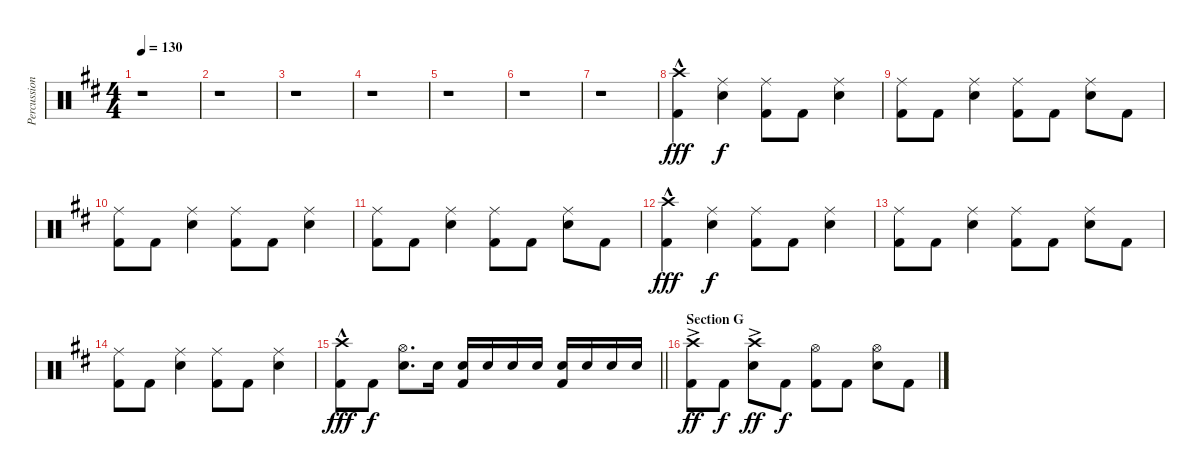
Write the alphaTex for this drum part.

\track ("Percussion" "Percussion") {instrument percussion}
\staff {score}
\articulation defaults
\ts (4 4)
\tempo 130
\clef neutral
\ks d
r.1{dy f} |
r.1 |
r.1 |
r.1 |
r.1 |
r.1 |
r.1 |
("Crash high (hit)" "Kick (hit) 2"{hac}).4{dy fff} ("Ride (middle)" "Snare (hit) 2").4{dy f} ("Ride (middle)" "Kick (hit) 2").8 "Kick (hit) 2".8 ("Ride (middle)" "Snare (hit) 2").4 |
("Ride (middle)" "Kick (hit) 2").8 "Kick (hit) 2".8 ("Ride (middle)" "Snare (hit) 2").4 ("Ride (middle)" "Kick (hit) 2").8 "Kick (hit) 2".8 ("Ride (middle)" "Snare (hit) 2").8 "Kick (hit) 2".8 |
("Ride (middle)" "Kick (hit) 2").8 "Kick (hit) 2".8 ("Ride (middle)" "Snare (hit) 2").4 ("Ride (middle)" "Kick (hit) 2").8 "Kick (hit) 2".8 ("Ride (middle)" "Snare (hit) 2").4 |
("Ride (middle)" "Kick (hit) 2").8 "Kick (hit) 2".8 ("Ride (middle)" "Snare (hit) 2").4 ("Ride (middle)" "Kick (hit) 2").8 "Kick (hit) 2".8 ("Ride (middle)" "Snare (hit) 2").8 "Kick (hit) 2".8 |
("Crash high (hit)" "Kick (hit) 2"{hac}).4{dy fff} ("Ride (middle)" "Snare (hit) 2").4{dy f} ("Ride (middle)" "Kick (hit) 2").8 "Kick (hit) 2".8 ("Ride (middle)" "Snare (hit) 2").4 |
("Ride (middle)" "Kick (hit) 2").8 "Kick (hit) 2".8 ("Ride (middle)" "Snare (hit) 2").4 ("Ride (middle)" "Kick (hit) 2").8 "Kick (hit) 2".8 ("Ride (middle)" "Snare (hit) 2").8 "Kick (hit) 2".8 |
("Ride (middle)" "Kick (hit) 2").8 "Kick (hit) 2".8 ("Ride (middle)" "Snare (hit) 2").4 ("Ride (middle)" "Kick (hit) 2").8 "Kick (hit) 2".8 ("Ride (middle)" "Snare (hit) 2").4 |
\barLineRight lightlight
("Crash high (hit)" "Kick (hit) 2"{hac}).8{dy fff} "Kick (hit) 2".8{dy f} ("Hi-Hat (open)" "Snare (hit) 2").8{d} "Snare (hit) 2".16 ("Snare (hit) 2" "Kick (hit) 2").16 "Snare (hit) 2".16 "Snare (hit) 2".16 "Snare (hit) 2".16 ("Snare (hit) 2" "Kick (hit) 2").16 "Snare (hit) 2".16 "Snare (hit) 2".16 "Snare (hit) 2".16 |
\section ("" "Section G")
("Crash high (hit)"{ac} "Kick (hit) 2").8{dy ff} "Kick (hit) 2".8{dy f} ("Crash high (hit)"{ac} "Snare (hit) 2").8{dy ff} "Kick (hit) 2".8{dy f} ("Hi-Hat (open)" "Kick (hit) 2").8 "Kick (hit) 2".8 ("Hi-Hat (open)" "Snare (hit) 2").8 "Kick (hit) 2".8
